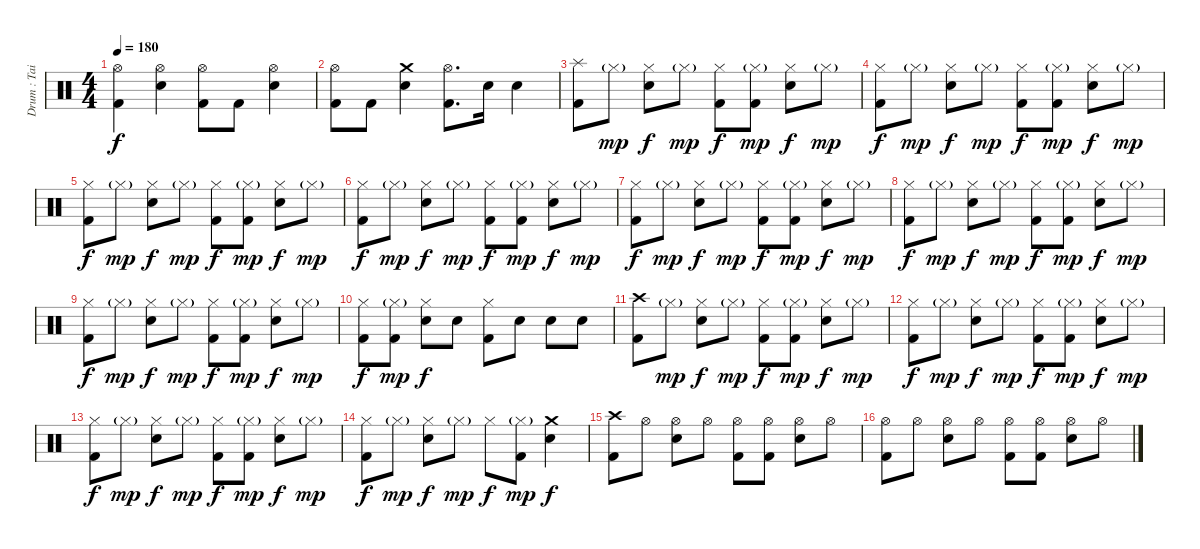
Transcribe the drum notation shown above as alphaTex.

\track ("Drum : Tainaka Ritsu - Chan" "Drum : Tai") {instrument percussion}
\staff {score}
\articulation defaults
\ts (4 4)
\tempo 180
\clef neutral
\ks c
("Hi-Hat (open)" "Kick (hit) 2").4{dy f} ("Hi-Hat (open)" "Electric Snare (hit)").4 ("Hi-Hat (open)" "Kick (hit) 2").8 "Kick (hit) 2".8 ("Hi-Hat (open)" "Electric Snare (hit)").4 |
("Hi-Hat (open)" "Kick (hit) 2").8 "Kick (hit) 2".8 ("Crash medium (hit)" "Electric Snare (hit)").4 ("Hi-Hat (open)" "Kick (hit) 2").8{d} "Electric Snare (hit)".16 "Electric Snare (hit)".4 |
("Splash (hit)" "Kick (hit) 2").8 "Hi-Hat (closed)"{g}.8{dy mp} ("Hi-Hat (closed)" "Electric Snare (hit)").8{dy f} "Hi-Hat (closed)"{g}.8{dy mp} ("Hi-Hat (closed)" "Kick (hit) 2").8{dy f} ("Hi-Hat (closed)"{g} "Kick (hit) 2").8{dy mp} ("Hi-Hat (closed)" "Electric Snare (hit)").8{dy f} "Hi-Hat (closed)"{g}.8{dy mp} |
("Hi-Hat (closed)" "Kick (hit) 2").8{dy f} "Hi-Hat (closed)"{g}.8{dy mp} ("Hi-Hat (closed)" "Electric Snare (hit)").8{dy f} "Hi-Hat (closed)"{g}.8{dy mp} ("Hi-Hat (closed)" "Kick (hit) 2").8{dy f} ("Hi-Hat (closed)"{g} "Kick (hit) 2").8{dy mp} ("Hi-Hat (closed)" "Electric Snare (hit)").8{dy f} "Hi-Hat (closed)"{g}.8{dy mp} |
("Hi-Hat (closed)" "Kick (hit) 2").8{dy f} "Hi-Hat (closed)"{g}.8{dy mp} ("Hi-Hat (closed)" "Electric Snare (hit)").8{dy f} "Hi-Hat (closed)"{g}.8{dy mp} ("Hi-Hat (closed)" "Kick (hit) 2").8{dy f} ("Hi-Hat (closed)"{g} "Kick (hit) 2").8{dy mp} ("Hi-Hat (closed)" "Electric Snare (hit)").8{dy f} "Hi-Hat (closed)"{g}.8{dy mp} |
("Hi-Hat (closed)" "Kick (hit) 2").8{dy f} "Hi-Hat (closed)"{g}.8{dy mp} ("Hi-Hat (closed)" "Electric Snare (hit)").8{dy f} "Hi-Hat (closed)"{g}.8{dy mp} ("Hi-Hat (closed)" "Kick (hit) 2").8{dy f} ("Hi-Hat (closed)"{g} "Kick (hit) 2").8{dy mp} ("Hi-Hat (closed)" "Electric Snare (hit)").8{dy f} "Hi-Hat (closed)"{g}.8{dy mp} |
("Hi-Hat (closed)" "Kick (hit) 2").8{dy f} "Hi-Hat (closed)"{g}.8{dy mp} ("Hi-Hat (closed)" "Electric Snare (hit)").8{dy f} "Hi-Hat (closed)"{g}.8{dy mp} ("Hi-Hat (closed)" "Kick (hit) 2").8{dy f} ("Hi-Hat (closed)"{g} "Kick (hit) 2").8{dy mp} ("Hi-Hat (closed)" "Electric Snare (hit)").8{dy f} "Hi-Hat (closed)"{g}.8{dy mp} |
("Hi-Hat (closed)" "Kick (hit) 2").8{dy f} "Hi-Hat (closed)"{g}.8{dy mp} ("Hi-Hat (closed)" "Electric Snare (hit)").8{dy f} "Hi-Hat (closed)"{g}.8{dy mp} ("Hi-Hat (closed)" "Kick (hit) 2").8{dy f} ("Hi-Hat (closed)"{g} "Kick (hit) 2").8{dy mp} ("Hi-Hat (closed)" "Electric Snare (hit)").8{dy f} "Hi-Hat (closed)"{g}.8{dy mp} |
("Hi-Hat (closed)" "Kick (hit) 2").8{dy f} "Hi-Hat (closed)"{g}.8{dy mp} ("Hi-Hat (closed)" "Electric Snare (hit)").8{dy f} "Hi-Hat (closed)"{g}.8{dy mp} ("Hi-Hat (closed)" "Kick (hit) 2").8{dy f} ("Hi-Hat (closed)"{g} "Kick (hit) 2").8{dy mp} ("Hi-Hat (closed)" "Electric Snare (hit)").8{dy f} "Hi-Hat (closed)"{g}.8{dy mp} |
("Hi-Hat (closed)" "Kick (hit) 2").8{dy f} ("Hi-Hat (closed)"{g} "Kick (hit) 2").8{dy mp} ("Hi-Hat (closed)" "Electric Snare (hit)").8{dy f} "Electric Snare (hit)".8 ("Hi-Hat (closed)" "Kick (hit) 2").8 "Electric Snare (hit)".8 "Electric Snare (hit)".8 "Electric Snare (hit)".8 |
("Crash high (hit)" "Kick (hit) 2").8 "Hi-Hat (closed)"{g}.8{dy mp} ("Hi-Hat (closed)" "Electric Snare (hit)").8{dy f} "Hi-Hat (closed)"{g}.8{dy mp} ("Hi-Hat (closed)" "Kick (hit) 2").8{dy f} ("Hi-Hat (closed)"{g} "Kick (hit) 2").8{dy mp} ("Hi-Hat (closed)" "Electric Snare (hit)").8{dy f} "Hi-Hat (closed)"{g}.8{dy mp} |
("Hi-Hat (closed)" "Kick (hit) 2").8{dy f} "Hi-Hat (closed)"{g}.8{dy mp} ("Hi-Hat (closed)" "Electric Snare (hit)").8{dy f} "Hi-Hat (closed)"{g}.8{dy mp} ("Hi-Hat (closed)" "Kick (hit) 2").8{dy f} ("Hi-Hat (closed)"{g} "Kick (hit) 2").8{dy mp} ("Hi-Hat (closed)" "Electric Snare (hit)").8{dy f} "Hi-Hat (closed)"{g}.8{dy mp} |
("Hi-Hat (closed)" "Kick (hit) 2").8{dy f} "Hi-Hat (closed)"{g}.8{dy mp} ("Hi-Hat (closed)" "Electric Snare (hit)").8{dy f} "Hi-Hat (closed)"{g}.8{dy mp} ("Hi-Hat (closed)" "Kick (hit) 2").8{dy f} ("Hi-Hat (closed)"{g} "Kick (hit) 2").8{dy mp} ("Hi-Hat (closed)" "Electric Snare (hit)").8{dy f} "Hi-Hat (closed)"{g}.8{dy mp} |
("Hi-Hat (closed)" "Kick (hit) 2").8{dy f} "Hi-Hat (closed)"{g}.8{dy mp} ("Hi-Hat (closed)" "Electric Snare (hit)").8{dy f} "Hi-Hat (closed)"{g}.8{dy mp} "Hi-Hat (closed)".8{dy f} ("Hi-Hat (closed)"{g} "Kick (hit) 2").8{dy mp} ("Crash medium (hit)" "Electric Snare (hit)").4{dy f} |
("Crash high (hit)" "Kick (hit) 2").8 "Hi-Hat (open)".8 ("Hi-Hat (open)" "Electric Snare (hit)").8 "Hi-Hat (open)".8 ("Hi-Hat (open)" "Kick (hit) 2").8 ("Hi-Hat (open)" "Kick (hit) 2").8 ("Hi-Hat (open)" "Electric Snare (hit)").8 "Hi-Hat (open)".8 |
("Hi-Hat (open)" "Kick (hit) 2").8 "Hi-Hat (open)".8 ("Hi-Hat (open)" "Electric Snare (hit)").8 "Hi-Hat (open)".8 ("Hi-Hat (open)" "Kick (hit) 2").8 ("Hi-Hat (open)" "Kick (hit) 2").8 ("Hi-Hat (open)" "Electric Snare (hit)").8 "Hi-Hat (open)".8
